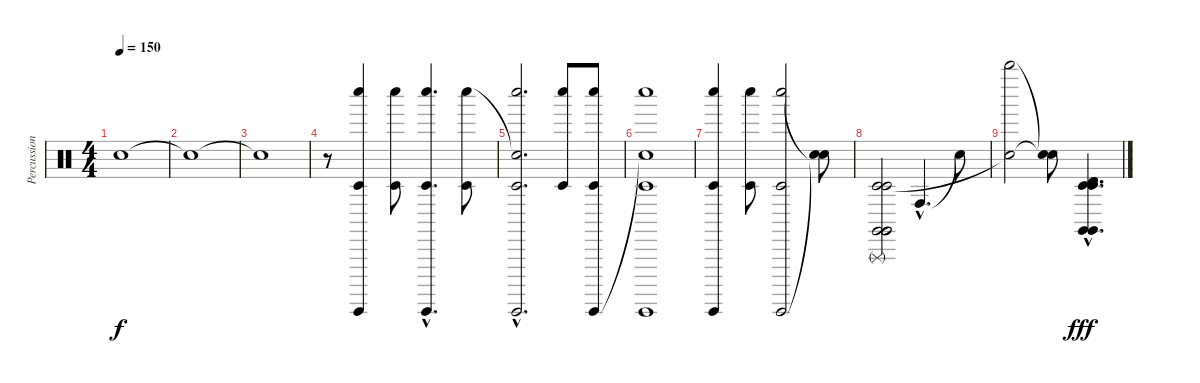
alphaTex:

\track ("Percussion" "Percussion") {instrument percussion}
\staff {score}
\articulation defaults
\ts (4 4)
\tempo 150
\clef neutral
\ks c "Snare (hit)"{t}.1{dy f}
|
"Snare (hit)"{t}.1 |
"Snare (hit)"{t}.1 |
r.8 ("Guiro (hit)" "Whistle low (hit)" "Timbale low (hit)").4 ("Whistle low (hit)" "Timbale low (hit)").8 ("Guiro (hit)"{hac} "Whistle low (hit)"{hac} "Timbale low (hit)"{hac}).4{d} ("Whistle low (hit)" "Timbale low (hit)").8 |
("Snare (hit)"{hac t} "Guiro (hit)"{hac} "Whistle low (hit)"{hac} "Timbale low (hit)"{hac}).2{d} ("Whistle low (hit)" "Timbale low (hit)").8 ("Guiro (hit)" "Whistle low (hit)" "Timbale low (hit)").8 |
("Snare (hit)"{t} "Guiro (hit)" "Whistle low (hit)" "Timbale low (hit)").1 |
("Guiro (hit)" "Whistle low (hit)" "Timbale low (hit)").4 ("Whistle low (hit)" "Timbale low (hit)").8 ("Guiro (hit)" "Whistle low (hit)" "Timbale low (hit)").2 ("Snare (hit)"{t} "Snare (hit)"{t}).8 |
("Claves (hit)" "Timbale low (hit)" "Claves (hit)" "Triangle (rnute)" "Claves (hit)" "Timbale low (hit)").2{bd 480} "Conga high (hit)"{hac}.4{d} "Snare (hit)"{t}.8 |
("Whistle high (hit)" "Snare (hit)"{t}).2 ("Snare (hit)"{t} "Snare (hit)"{t}).8 ("Timbale low (hit)"{hac} "Timbale low (hit)"{hac} "Claves (hit)"{hac} "Claves (hit)"{hac} "Timbale high (hit)"{hac} "Timbale high (hit)"{hac}).4{d dy fff}
